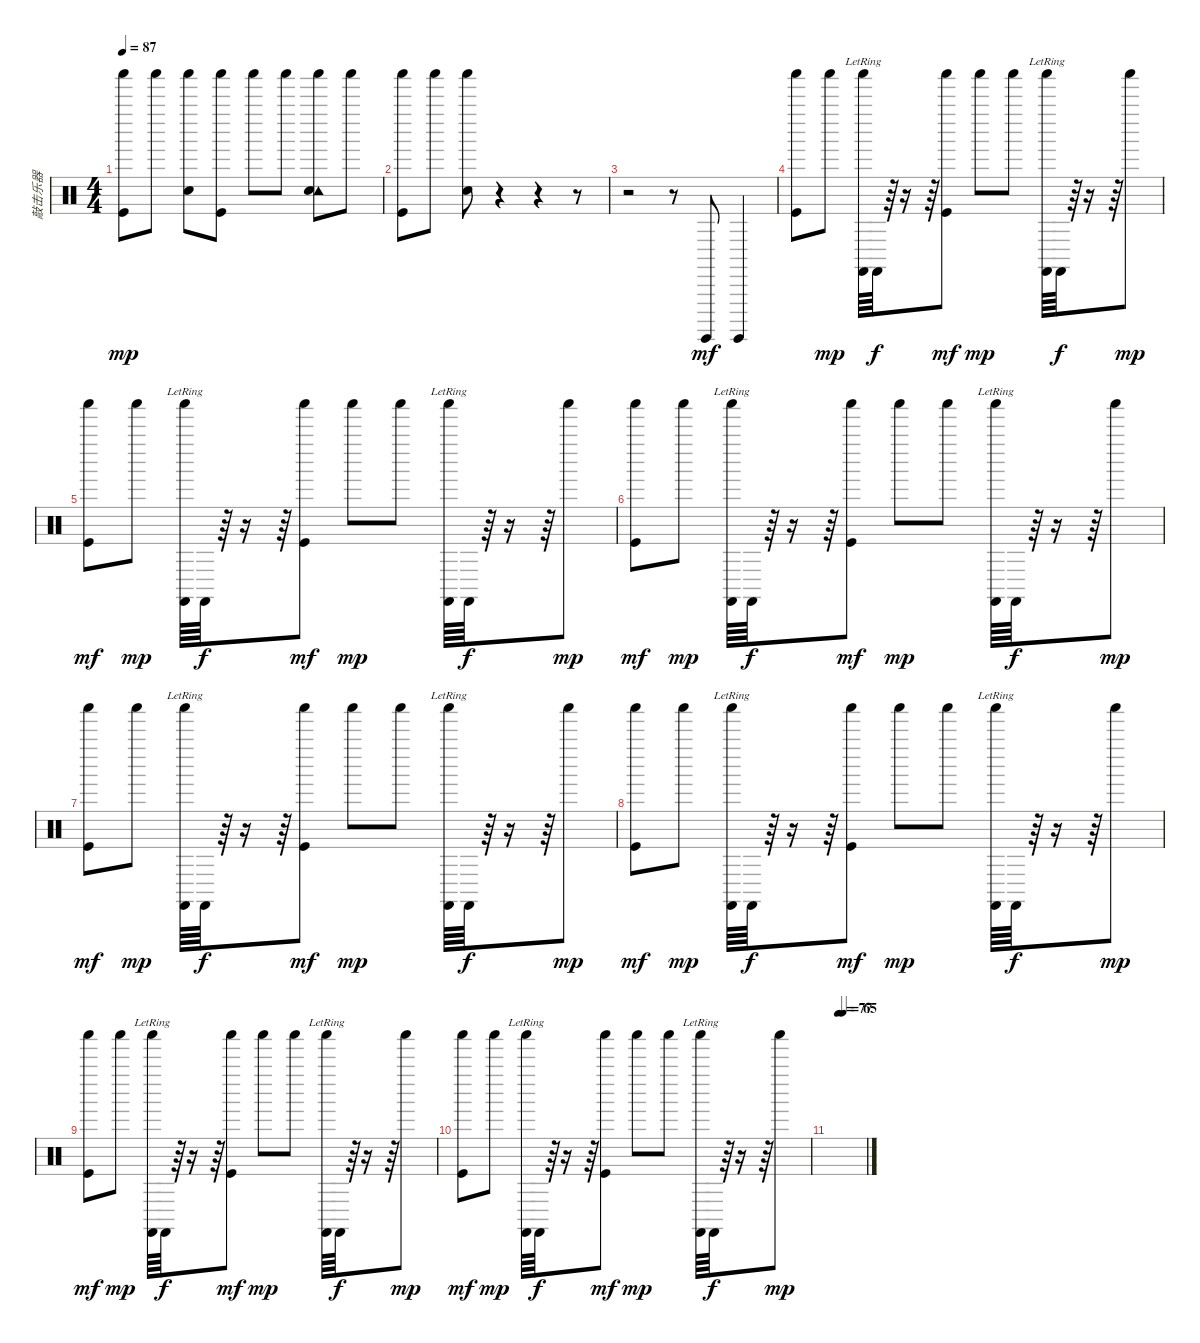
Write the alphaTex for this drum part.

\track ("敲击乐器" "敲击乐器") {instrument percussion}
\staff {score}
\articulation defaults
\ts (4 4)
\tempo 87
\clef neutral
\ks c
("Shaker (hit)" "Kick (hit)").8{dy mp} "Shaker (hit)".8 ("Shaker (hit)" "Hand Clap (hit)").8 ("Shaker (hit)" "Kick (hit)").8 "Shaker (hit)".8 "Shaker (hit)".8 ("Shaker (hit)" "Tambourine (hit)" "Hand Clap (hit)").8 "Shaker (hit)".8 |
("Shaker (hit)" "Kick (hit)").8 "Shaker (hit)".8 ("Shaker (hit)" "Hand Clap (hit)").8 r.4 r.4 r.8 |
r.2 r.8 "Surdo (hit)".8{dy mf} "Surdo (hit)".4 |
("Shaker (hit)" "Kick (hit)").8 "Shaker (hit)".8{dy mp} ("Shaker (hit)"{lr} "Castanets (hit)").64 "Castanets (hit)".64{dy f} r.64 r.16 r.64 ("Shaker (hit)" "Kick (hit)").8{dy mf} "Shaker (hit)".8{dy mp} "Shaker (hit)".8 ("Shaker (hit)"{lr} "Castanets (hit)").64 "Castanets (hit)".64{dy f} r.64 r.16 r.64 "Shaker (hit)".8{dy mp} |
("Shaker (hit)" "Kick (hit)").8{dy mf} "Shaker (hit)".8{dy mp} ("Shaker (hit)"{lr} "Castanets (hit)").64 "Castanets (hit)".64{dy f} r.64 r.16 r.64 ("Shaker (hit)" "Kick (hit)").8{dy mf} "Shaker (hit)".8{dy mp} "Shaker (hit)".8 ("Shaker (hit)"{lr} "Castanets (hit)").64 "Castanets (hit)".64{dy f} r.64 r.16 r.64 "Shaker (hit)".8{dy mp} |
("Shaker (hit)" "Kick (hit)").8{dy mf} "Shaker (hit)".8{dy mp} ("Shaker (hit)"{lr} "Castanets (hit)").64 "Castanets (hit)".64{dy f} r.64 r.16 r.64 ("Shaker (hit)" "Kick (hit)").8{dy mf} "Shaker (hit)".8{dy mp} "Shaker (hit)".8 ("Shaker (hit)"{lr} "Castanets (hit)").64 "Castanets (hit)".64{dy f} r.64 r.16 r.64 "Shaker (hit)".8{dy mp} |
("Shaker (hit)" "Kick (hit)").8{dy mf} "Shaker (hit)".8{dy mp} ("Shaker (hit)"{lr} "Castanets (hit)").64 "Castanets (hit)".64{dy f} r.64 r.16 r.64 ("Shaker (hit)" "Kick (hit)").8{dy mf} "Shaker (hit)".8{dy mp} "Shaker (hit)".8 ("Shaker (hit)"{lr} "Castanets (hit)").64 "Castanets (hit)".64{dy f} r.64 r.16 r.64 "Shaker (hit)".8{dy mp} |
("Shaker (hit)" "Kick (hit)").8{dy mf} "Shaker (hit)".8{dy mp} ("Shaker (hit)"{lr} "Castanets (hit)").64 "Castanets (hit)".64{dy f} r.64 r.16 r.64 ("Shaker (hit)" "Kick (hit)").8{dy mf} "Shaker (hit)".8{dy mp} "Shaker (hit)".8 ("Shaker (hit)"{lr} "Castanets (hit)").64 "Castanets (hit)".64{dy f} r.64 r.16 r.64 "Shaker (hit)".8{dy mp} |
("Shaker (hit)" "Kick (hit)").8{dy mf} "Shaker (hit)".8{dy mp} ("Shaker (hit)"{lr} "Castanets (hit)").64 "Castanets (hit)".64{dy f} r.64 r.16 r.64 ("Shaker (hit)" "Kick (hit)").8{dy mf} "Shaker (hit)".8{dy mp} "Shaker (hit)".8 ("Shaker (hit)"{lr} "Castanets (hit)").64 "Castanets (hit)".64{dy f} r.64 r.16 r.64 "Shaker (hit)".8{dy mp} |
("Shaker (hit)" "Kick (hit)").8{dy mf} "Shaker (hit)".8{dy mp} ("Shaker (hit)"{lr} "Castanets (hit)").64 "Castanets (hit)".64{dy f} r.64 r.16 r.64 ("Shaker (hit)" "Kick (hit)").8{dy mf} "Shaker (hit)".8{dy mp} "Shaker (hit)".8 ("Shaker (hit)"{lr} "Castanets (hit)").64 "Castanets (hit)".64{dy f} r.64 r.16 r.64 "Shaker (hit)".8{dy mp} |
\tempo (77 0.25)
\tempo (65 0.375)
